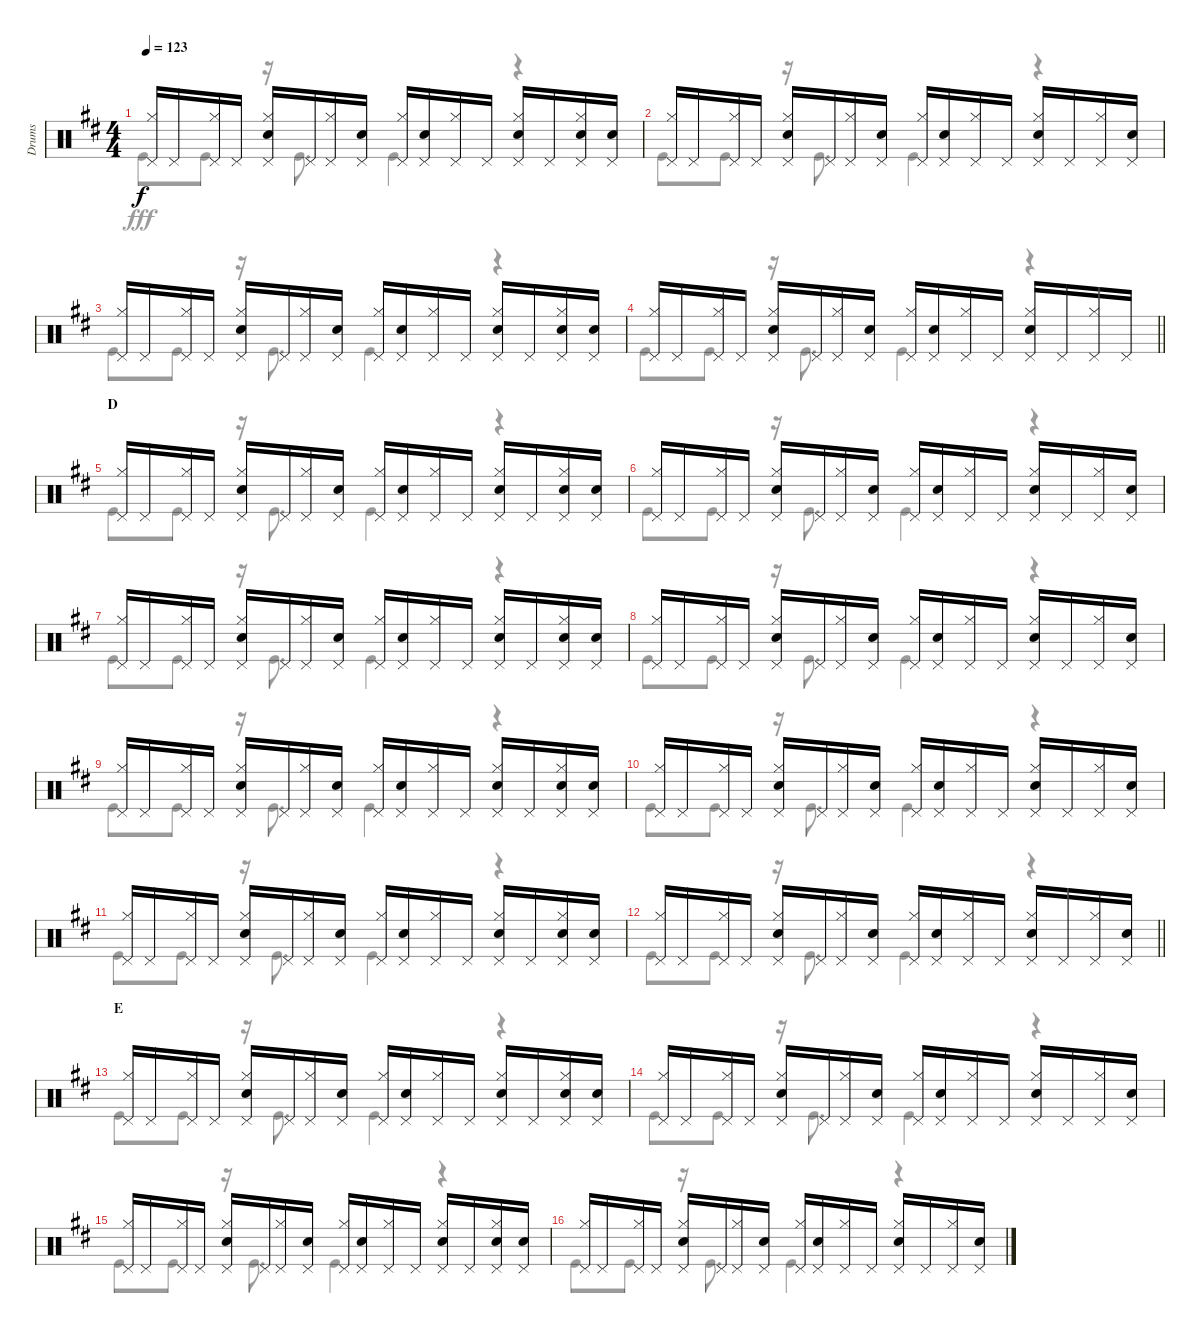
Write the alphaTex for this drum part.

\track ("Drums" "Drums") {instrument percussion}
\staff {score}
\articulation defaults
\voice
\ts (4 4)
\tempo 123
\clef neutral
\ks d
("Hi-Hat (closed)" "Pedal Hi-Hat (hit)").16{dy f} "Pedal Hi-Hat (hit)".16 ("Hi-Hat (closed)" "Pedal Hi-Hat (hit)").16 "Pedal Hi-Hat (hit)".16 ("Hi-Hat (closed)" "Snare (hit) 2" "Pedal Hi-Hat (hit)").16 "Pedal Hi-Hat (hit)".16 ("Hi-Hat (closed)" "Pedal Hi-Hat (hit)").16 ("Pedal Hi-Hat (hit)" "Snare (hit) 2").16 ("Hi-Hat (closed)" "Pedal Hi-Hat (hit)").16 ("Pedal Hi-Hat (hit)" "Snare (hit) 2").16 ("Hi-Hat (closed)" "Pedal Hi-Hat (hit)").16 "Pedal Hi-Hat (hit)".16 ("Hi-Hat (closed)" "Snare (hit) 2" "Pedal Hi-Hat (hit)").16 "Pedal Hi-Hat (hit)".16 ("Hi-Hat (closed)" "Snare (hit) 2" "Pedal Hi-Hat (hit)").16 ("Pedal Hi-Hat (hit)" "Snare (hit) 2").16 |
("Hi-Hat (closed)" "Pedal Hi-Hat (hit)").16 "Pedal Hi-Hat (hit)".16 ("Hi-Hat (closed)" "Pedal Hi-Hat (hit)").16 "Pedal Hi-Hat (hit)".16 ("Hi-Hat (closed)" "Snare (hit) 2" "Pedal Hi-Hat (hit)").16 "Pedal Hi-Hat (hit)".16 ("Hi-Hat (closed)" "Pedal Hi-Hat (hit)").16 ("Pedal Hi-Hat (hit)" "Snare (hit) 2").16 ("Hi-Hat (closed)" "Pedal Hi-Hat (hit)").16 ("Pedal Hi-Hat (hit)" "Snare (hit) 2").16 ("Hi-Hat (closed)" "Pedal Hi-Hat (hit)").16 "Pedal Hi-Hat (hit)".16 ("Hi-Hat (closed)" "Snare (hit) 2" "Pedal Hi-Hat (hit)").16 "Pedal Hi-Hat (hit)".16 ("Hi-Hat (closed)" "Pedal Hi-Hat (hit)").16 ("Pedal Hi-Hat (hit)" "Snare (hit) 2").16 |
("Hi-Hat (closed)" "Pedal Hi-Hat (hit)").16 "Pedal Hi-Hat (hit)".16 ("Hi-Hat (closed)" "Pedal Hi-Hat (hit)").16 "Pedal Hi-Hat (hit)".16 ("Hi-Hat (closed)" "Snare (hit) 2" "Pedal Hi-Hat (hit)").16 "Pedal Hi-Hat (hit)".16 ("Hi-Hat (closed)" "Pedal Hi-Hat (hit)").16 ("Pedal Hi-Hat (hit)" "Snare (hit) 2").16 ("Hi-Hat (closed)" "Pedal Hi-Hat (hit)").16 ("Pedal Hi-Hat (hit)" "Snare (hit) 2").16 ("Hi-Hat (closed)" "Pedal Hi-Hat (hit)").16 "Pedal Hi-Hat (hit)".16 ("Hi-Hat (closed)" "Snare (hit) 2" "Pedal Hi-Hat (hit)").16 "Pedal Hi-Hat (hit)".16 ("Hi-Hat (closed)" "Snare (hit) 2" "Pedal Hi-Hat (hit)").16 ("Pedal Hi-Hat (hit)" "Snare (hit) 2").16 |
\barLineRight lightlight
("Hi-Hat (closed)" "Pedal Hi-Hat (hit)").16 "Pedal Hi-Hat (hit)".16 ("Hi-Hat (closed)" "Pedal Hi-Hat (hit)").16 "Pedal Hi-Hat (hit)".16 ("Hi-Hat (closed)" "Snare (hit) 2" "Pedal Hi-Hat (hit)").16 "Pedal Hi-Hat (hit)".16 ("Hi-Hat (closed)" "Pedal Hi-Hat (hit)").16 ("Pedal Hi-Hat (hit)" "Snare (hit) 2").16 ("Hi-Hat (closed)" "Pedal Hi-Hat (hit)").16 ("Pedal Hi-Hat (hit)" "Snare (hit) 2").16 ("Hi-Hat (closed)" "Pedal Hi-Hat (hit)").16 "Pedal Hi-Hat (hit)".16 ("Hi-Hat (closed)" "Snare (hit) 2" "Pedal Hi-Hat (hit)").16 "Pedal Hi-Hat (hit)".16 ("Hi-Hat (closed)" "Pedal Hi-Hat (hit)").16 "Pedal Hi-Hat (hit)".16 |
\section ("" "D")
("Hi-Hat (closed)" "Pedal Hi-Hat (hit)").16 "Pedal Hi-Hat (hit)".16 ("Hi-Hat (closed)" "Pedal Hi-Hat (hit)").16 "Pedal Hi-Hat (hit)".16 ("Hi-Hat (closed)" "Snare (hit) 2" "Pedal Hi-Hat (hit)").16 "Pedal Hi-Hat (hit)".16 ("Hi-Hat (closed)" "Pedal Hi-Hat (hit)").16 ("Pedal Hi-Hat (hit)" "Snare (hit) 2").16 ("Hi-Hat (closed)" "Pedal Hi-Hat (hit)").16 ("Pedal Hi-Hat (hit)" "Snare (hit) 2").16 ("Hi-Hat (closed)" "Pedal Hi-Hat (hit)").16 "Pedal Hi-Hat (hit)".16 ("Hi-Hat (closed)" "Snare (hit) 2" "Pedal Hi-Hat (hit)").16 "Pedal Hi-Hat (hit)".16 ("Hi-Hat (closed)" "Snare (hit) 2" "Pedal Hi-Hat (hit)").16 ("Pedal Hi-Hat (hit)" "Snare (hit) 2").16 |
("Hi-Hat (closed)" "Pedal Hi-Hat (hit)").16 "Pedal Hi-Hat (hit)".16 ("Hi-Hat (closed)" "Pedal Hi-Hat (hit)").16 "Pedal Hi-Hat (hit)".16 ("Hi-Hat (closed)" "Snare (hit) 2" "Pedal Hi-Hat (hit)").16 "Pedal Hi-Hat (hit)".16 ("Hi-Hat (closed)" "Pedal Hi-Hat (hit)").16 ("Pedal Hi-Hat (hit)" "Snare (hit) 2").16 ("Hi-Hat (closed)" "Pedal Hi-Hat (hit)").16 ("Pedal Hi-Hat (hit)" "Snare (hit) 2").16 ("Hi-Hat (closed)" "Pedal Hi-Hat (hit)").16 "Pedal Hi-Hat (hit)".16 ("Hi-Hat (closed)" "Snare (hit) 2" "Pedal Hi-Hat (hit)").16 "Pedal Hi-Hat (hit)".16 ("Hi-Hat (closed)" "Pedal Hi-Hat (hit)").16 ("Pedal Hi-Hat (hit)" "Snare (hit) 2").16 |
("Hi-Hat (closed)" "Pedal Hi-Hat (hit)").16 "Pedal Hi-Hat (hit)".16 ("Hi-Hat (closed)" "Pedal Hi-Hat (hit)").16 "Pedal Hi-Hat (hit)".16 ("Hi-Hat (closed)" "Snare (hit) 2" "Pedal Hi-Hat (hit)").16 "Pedal Hi-Hat (hit)".16 ("Hi-Hat (closed)" "Pedal Hi-Hat (hit)").16 ("Pedal Hi-Hat (hit)" "Snare (hit) 2").16 ("Hi-Hat (closed)" "Pedal Hi-Hat (hit)").16 ("Pedal Hi-Hat (hit)" "Snare (hit) 2").16 ("Hi-Hat (closed)" "Pedal Hi-Hat (hit)").16 "Pedal Hi-Hat (hit)".16 ("Hi-Hat (closed)" "Snare (hit) 2" "Pedal Hi-Hat (hit)").16 "Pedal Hi-Hat (hit)".16 ("Hi-Hat (closed)" "Snare (hit) 2" "Pedal Hi-Hat (hit)").16 ("Pedal Hi-Hat (hit)" "Snare (hit) 2").16 |
("Hi-Hat (closed)" "Pedal Hi-Hat (hit)").16 "Pedal Hi-Hat (hit)".16 ("Hi-Hat (closed)" "Pedal Hi-Hat (hit)").16 "Pedal Hi-Hat (hit)".16 ("Hi-Hat (closed)" "Snare (hit) 2" "Pedal Hi-Hat (hit)").16 "Pedal Hi-Hat (hit)".16 ("Hi-Hat (closed)" "Pedal Hi-Hat (hit)").16 ("Pedal Hi-Hat (hit)" "Snare (hit) 2").16 ("Hi-Hat (closed)" "Pedal Hi-Hat (hit)").16 ("Pedal Hi-Hat (hit)" "Snare (hit) 2").16 ("Hi-Hat (closed)" "Pedal Hi-Hat (hit)").16 "Pedal Hi-Hat (hit)".16 ("Hi-Hat (closed)" "Snare (hit) 2" "Pedal Hi-Hat (hit)").16 "Pedal Hi-Hat (hit)".16 ("Hi-Hat (closed)" "Pedal Hi-Hat (hit)").16 ("Pedal Hi-Hat (hit)" "Snare (hit) 2").16 |
("Hi-Hat (closed)" "Pedal Hi-Hat (hit)").16 "Pedal Hi-Hat (hit)".16 ("Hi-Hat (closed)" "Pedal Hi-Hat (hit)").16 "Pedal Hi-Hat (hit)".16 ("Hi-Hat (closed)" "Snare (hit) 2" "Pedal Hi-Hat (hit)").16 "Pedal Hi-Hat (hit)".16 ("Hi-Hat (closed)" "Pedal Hi-Hat (hit)").16 ("Pedal Hi-Hat (hit)" "Snare (hit) 2").16 ("Hi-Hat (closed)" "Pedal Hi-Hat (hit)").16 ("Pedal Hi-Hat (hit)" "Snare (hit) 2").16 ("Hi-Hat (closed)" "Pedal Hi-Hat (hit)").16 "Pedal Hi-Hat (hit)".16 ("Hi-Hat (closed)" "Snare (hit) 2" "Pedal Hi-Hat (hit)").16 "Pedal Hi-Hat (hit)".16 ("Hi-Hat (closed)" "Snare (hit) 2" "Pedal Hi-Hat (hit)").16 ("Pedal Hi-Hat (hit)" "Snare (hit) 2").16 |
("Hi-Hat (closed)" "Pedal Hi-Hat (hit)").16 "Pedal Hi-Hat (hit)".16 ("Hi-Hat (closed)" "Pedal Hi-Hat (hit)").16 "Pedal Hi-Hat (hit)".16 ("Hi-Hat (closed)" "Snare (hit) 2" "Pedal Hi-Hat (hit)").16 "Pedal Hi-Hat (hit)".16 ("Hi-Hat (closed)" "Pedal Hi-Hat (hit)").16 ("Pedal Hi-Hat (hit)" "Snare (hit) 2").16 ("Hi-Hat (closed)" "Pedal Hi-Hat (hit)").16 ("Pedal Hi-Hat (hit)" "Snare (hit) 2").16 ("Hi-Hat (closed)" "Pedal Hi-Hat (hit)").16 "Pedal Hi-Hat (hit)".16 ("Hi-Hat (closed)" "Snare (hit) 2" "Pedal Hi-Hat (hit)").16 "Pedal Hi-Hat (hit)".16 ("Hi-Hat (closed)" "Pedal Hi-Hat (hit)").16 ("Pedal Hi-Hat (hit)" "Snare (hit) 2").16 |
("Hi-Hat (closed)" "Pedal Hi-Hat (hit)").16 "Pedal Hi-Hat (hit)".16 ("Hi-Hat (closed)" "Pedal Hi-Hat (hit)").16 "Pedal Hi-Hat (hit)".16 ("Hi-Hat (closed)" "Snare (hit) 2" "Pedal Hi-Hat (hit)").16 "Pedal Hi-Hat (hit)".16 ("Hi-Hat (closed)" "Pedal Hi-Hat (hit)").16 ("Pedal Hi-Hat (hit)" "Snare (hit) 2").16 ("Hi-Hat (closed)" "Pedal Hi-Hat (hit)").16 ("Pedal Hi-Hat (hit)" "Snare (hit) 2").16 ("Hi-Hat (closed)" "Pedal Hi-Hat (hit)").16 "Pedal Hi-Hat (hit)".16 ("Hi-Hat (closed)" "Snare (hit) 2" "Pedal Hi-Hat (hit)").16 "Pedal Hi-Hat (hit)".16 ("Hi-Hat (closed)" "Snare (hit) 2" "Pedal Hi-Hat (hit)").16 ("Pedal Hi-Hat (hit)" "Snare (hit) 2").16 |
\barLineRight lightlight
("Hi-Hat (closed)" "Pedal Hi-Hat (hit)").16 "Pedal Hi-Hat (hit)".16 ("Hi-Hat (closed)" "Pedal Hi-Hat (hit)").16 "Pedal Hi-Hat (hit)".16 ("Hi-Hat (closed)" "Snare (hit) 2" "Pedal Hi-Hat (hit)").16 "Pedal Hi-Hat (hit)".16 ("Hi-Hat (closed)" "Pedal Hi-Hat (hit)").16 ("Pedal Hi-Hat (hit)" "Snare (hit) 2").16 ("Hi-Hat (closed)" "Pedal Hi-Hat (hit)").16 ("Pedal Hi-Hat (hit)" "Snare (hit) 2").16 ("Hi-Hat (closed)" "Pedal Hi-Hat (hit)").16 "Pedal Hi-Hat (hit)".16 ("Hi-Hat (closed)" "Snare (hit) 2" "Pedal Hi-Hat (hit)").16 "Pedal Hi-Hat (hit)".16 ("Hi-Hat (closed)" "Pedal Hi-Hat (hit)").16 ("Pedal Hi-Hat (hit)" "Snare (hit) 2").16 |
\section ("" "E")
("Hi-Hat (closed)" "Pedal Hi-Hat (hit)").16 "Pedal Hi-Hat (hit)".16 ("Hi-Hat (closed)" "Pedal Hi-Hat (hit)").16 "Pedal Hi-Hat (hit)".16 ("Hi-Hat (closed)" "Snare (hit) 2" "Pedal Hi-Hat (hit)").16 "Pedal Hi-Hat (hit)".16 ("Hi-Hat (closed)" "Pedal Hi-Hat (hit)").16 ("Pedal Hi-Hat (hit)" "Snare (hit) 2").16 ("Hi-Hat (closed)" "Pedal Hi-Hat (hit)").16 ("Pedal Hi-Hat (hit)" "Snare (hit) 2").16 ("Hi-Hat (closed)" "Pedal Hi-Hat (hit)").16 "Pedal Hi-Hat (hit)".16 ("Hi-Hat (closed)" "Snare (hit) 2" "Pedal Hi-Hat (hit)").16 "Pedal Hi-Hat (hit)".16 ("Hi-Hat (closed)" "Snare (hit) 2" "Pedal Hi-Hat (hit)").16 ("Pedal Hi-Hat (hit)" "Snare (hit) 2").16 |
("Hi-Hat (closed)" "Pedal Hi-Hat (hit)").16 "Pedal Hi-Hat (hit)".16 ("Hi-Hat (closed)" "Pedal Hi-Hat (hit)").16 "Pedal Hi-Hat (hit)".16 ("Hi-Hat (closed)" "Snare (hit) 2" "Pedal Hi-Hat (hit)").16 "Pedal Hi-Hat (hit)".16 ("Hi-Hat (closed)" "Pedal Hi-Hat (hit)").16 ("Pedal Hi-Hat (hit)" "Snare (hit) 2").16 ("Hi-Hat (closed)" "Pedal Hi-Hat (hit)").16 ("Pedal Hi-Hat (hit)" "Snare (hit) 2").16 ("Hi-Hat (closed)" "Pedal Hi-Hat (hit)").16 "Pedal Hi-Hat (hit)".16 ("Hi-Hat (closed)" "Snare (hit) 2" "Pedal Hi-Hat (hit)").16 "Pedal Hi-Hat (hit)".16 ("Hi-Hat (closed)" "Pedal Hi-Hat (hit)").16 ("Pedal Hi-Hat (hit)" "Snare (hit) 2").16 |
("Hi-Hat (closed)" "Pedal Hi-Hat (hit)").16 "Pedal Hi-Hat (hit)".16 ("Hi-Hat (closed)" "Pedal Hi-Hat (hit)").16 "Pedal Hi-Hat (hit)".16 ("Hi-Hat (closed)" "Snare (hit) 2" "Pedal Hi-Hat (hit)").16 "Pedal Hi-Hat (hit)".16 ("Hi-Hat (closed)" "Pedal Hi-Hat (hit)").16 ("Pedal Hi-Hat (hit)" "Snare (hit) 2").16 ("Hi-Hat (closed)" "Pedal Hi-Hat (hit)").16 ("Pedal Hi-Hat (hit)" "Snare (hit) 2").16 ("Hi-Hat (closed)" "Pedal Hi-Hat (hit)").16 "Pedal Hi-Hat (hit)".16 ("Hi-Hat (closed)" "Snare (hit) 2" "Pedal Hi-Hat (hit)").16 "Pedal Hi-Hat (hit)".16 ("Hi-Hat (closed)" "Snare (hit) 2" "Pedal Hi-Hat (hit)").16 ("Pedal Hi-Hat (hit)" "Snare (hit) 2").16 |
("Hi-Hat (closed)" "Pedal Hi-Hat (hit)").16 "Pedal Hi-Hat (hit)".16 ("Hi-Hat (closed)" "Pedal Hi-Hat (hit)").16 "Pedal Hi-Hat (hit)".16 ("Hi-Hat (closed)" "Snare (hit) 2" "Pedal Hi-Hat (hit)").16 "Pedal Hi-Hat (hit)".16 ("Hi-Hat (closed)" "Pedal Hi-Hat (hit)").16 ("Pedal Hi-Hat (hit)" "Snare (hit) 2").16 ("Hi-Hat (closed)" "Pedal Hi-Hat (hit)").16 ("Pedal Hi-Hat (hit)" "Snare (hit) 2").16 ("Hi-Hat (closed)" "Pedal Hi-Hat (hit)").16 "Pedal Hi-Hat (hit)".16 ("Hi-Hat (closed)" "Snare (hit) 2" "Pedal Hi-Hat (hit)").16 "Pedal Hi-Hat (hit)".16 ("Hi-Hat (closed)" "Pedal Hi-Hat (hit)").16 ("Pedal Hi-Hat (hit)" "Snare (hit) 2").16
\voice
\clef neutral
\ottava regular
\simile none
\ks d "Kick (hit)".8{dy fff} "Kick (hit)".8
r.16 "Kick (hit)".8{d} "Kick (hit)".4 r.4 |
"Kick (hit)".8 "Kick (hit)".8 r.16 "Kick (hit)".8{d} "Kick (hit)".4 r.4 |
"Kick (hit)".8 "Kick (hit)".8 r.16 "Kick (hit)".8{d} "Kick (hit)".4 r.4 |
\barLineRight lightlight "Kick (hit)".8 "Kick (hit)".8
r.16 "Kick (hit)".8{d} "Kick (hit)".4 r.4 |
"Kick (hit)".8 "Kick (hit)".8 r.16 "Kick (hit)".8{d} "Kick (hit)".4 r.4 |
"Kick (hit)".8 "Kick (hit)".8 r.16 "Kick (hit)".8{d} "Kick (hit)".4 r.4 |
"Kick (hit)".8 "Kick (hit)".8 r.16 "Kick (hit)".8{d} "Kick (hit)".4 r.4 |
"Kick (hit)".8 "Kick (hit)".8 r.16 "Kick (hit)".8{d} "Kick (hit)".4 r.4 |
"Kick (hit)".8 "Kick (hit)".8 r.16 "Kick (hit)".8{d} "Kick (hit)".4 r.4 |
"Kick (hit)".8 "Kick (hit)".8 r.16 "Kick (hit)".8{d} "Kick (hit)".4 r.4 |
"Kick (hit)".8 "Kick (hit)".8 r.16 "Kick (hit)".8{d} "Kick (hit)".4 r.4 |
\barLineRight lightlight "Kick (hit)".8 "Kick (hit)".8
r.16 "Kick (hit)".8{d} "Kick (hit)".4 r.4 |
"Kick (hit)".8 "Kick (hit)".8 r.16 "Kick (hit)".8{d} "Kick (hit)".4 r.4 |
"Kick (hit)".8 "Kick (hit)".8 r.16 "Kick (hit)".8{d} "Kick (hit)".4 r.4 |
"Kick (hit)".8 "Kick (hit)".8 r.16 "Kick (hit)".8{d} "Kick (hit)".4 r.4 |
"Kick (hit)".8 "Kick (hit)".8 r.16 "Kick (hit)".8{d} "Kick (hit)".4 r.4
